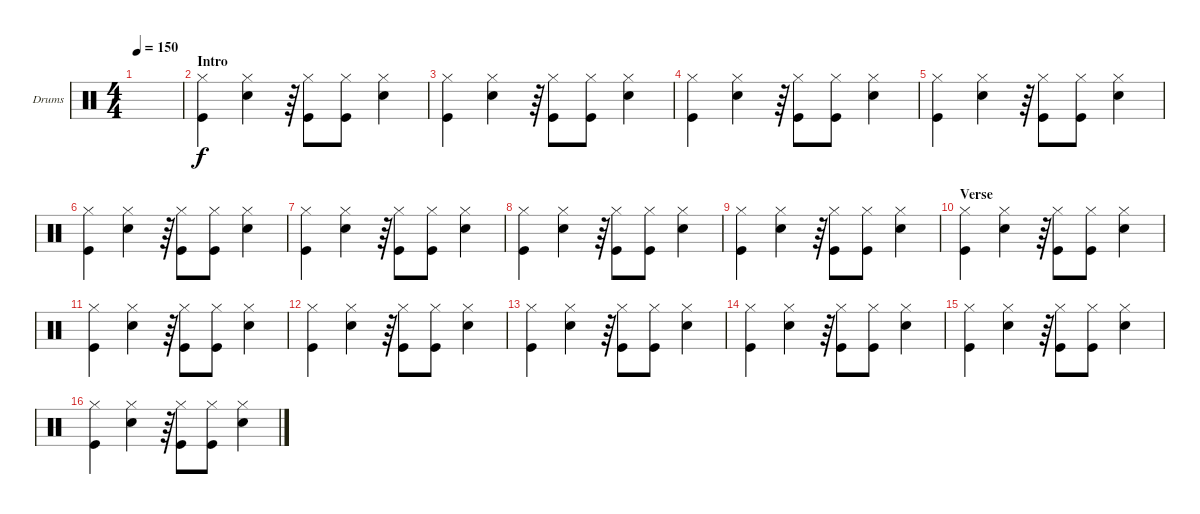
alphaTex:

\defaultSystemsLayout 4
\bracketExtendMode groupsimilarinstruments
\firstSystemTrackNameOrientation horizontal
\otherSystemsTrackNameOrientation horizontal
\track ("Drum" "Drums") {instrument percussion}
\staff {score}
\articulation defaults
\ts (4 4)
\tempo 150
\clef neutral
\scale
0.474178
\ks c
|
\section ("" "Intro")
\scale
0.262911 ("Hi-Hat (closed)" "Kick (hit)").4 ("Hi-Hat (closed)" "Snare (hit) 2").4 r.64 ("Hi-Hat (closed)" "Kick (hit)").8 ("Hi-Hat (closed)" "Kick (hit)").8 ("Hi-Hat (closed)" "Snare (hit) 2").4 |
\scale
0.262911 ("Hi-Hat (closed)" "Kick (hit)").4 ("Hi-Hat (closed)" "Snare (hit) 2").4 r.64 ("Hi-Hat (closed)" "Kick (hit)").8 ("Hi-Hat (closed)" "Kick (hit)").8 ("Hi-Hat (closed)" "Snare (hit) 2").4 |
("Hi-Hat (closed)" "Kick (hit)").4 ("Hi-Hat (closed)" "Snare (hit) 2").4 r.64 ("Hi-Hat (closed)" "Kick (hit)").8 ("Hi-Hat (closed)" "Kick (hit)").8 ("Hi-Hat (closed)" "Snare (hit) 2").4 |
("Hi-Hat (closed)" "Kick (hit)").4 ("Hi-Hat (closed)" "Snare (hit) 2").4 r.64 ("Hi-Hat (closed)" "Kick (hit)").8 ("Hi-Hat (closed)" "Kick (hit)").8 ("Hi-Hat (closed)" "Snare (hit) 2").4 |
("Hi-Hat (closed)" "Kick (hit)").4 ("Hi-Hat (closed)" "Snare (hit) 2").4 r.64 ("Hi-Hat (closed)" "Kick (hit)").8 ("Hi-Hat (closed)" "Kick (hit)").8 ("Hi-Hat (closed)" "Snare (hit) 2").4 |
("Hi-Hat (closed)" "Kick (hit)").4 ("Hi-Hat (closed)" "Snare (hit) 2").4 r.64 ("Hi-Hat (closed)" "Kick (hit)").8 ("Hi-Hat (closed)" "Kick (hit)").8 ("Hi-Hat (closed)" "Snare (hit) 2").4 |
("Hi-Hat (closed)" "Kick (hit)").4 ("Hi-Hat (closed)" "Snare (hit) 2").4 r.64 ("Hi-Hat (closed)" "Kick (hit)").8 ("Hi-Hat (closed)" "Kick (hit)").8 ("Hi-Hat (closed)" "Snare (hit) 2").4 |
("Hi-Hat (closed)" "Kick (hit)").4 ("Hi-Hat (closed)" "Snare (hit) 2").4 r.64 ("Hi-Hat (closed)" "Kick (hit)").8 ("Hi-Hat (closed)" "Kick (hit)").8 ("Hi-Hat (closed)" "Snare (hit) 2").4 |
\section ("" "Verse")
("Hi-Hat (closed)" "Kick (hit)").4 ("Hi-Hat (closed)" "Snare (hit) 2").4 r.64 ("Hi-Hat (closed)" "Kick (hit)").8 ("Hi-Hat (closed)" "Kick (hit)").8 ("Hi-Hat (closed)" "Snare (hit) 2").4 |
("Hi-Hat (closed)" "Kick (hit)").4 ("Hi-Hat (closed)" "Snare (hit) 2").4 r.64 ("Hi-Hat (closed)" "Kick (hit)").8 ("Hi-Hat (closed)" "Kick (hit)").8 ("Hi-Hat (closed)" "Snare (hit) 2").4 |
("Hi-Hat (closed)" "Kick (hit)").4 ("Hi-Hat (closed)" "Snare (hit) 2").4 r.64 ("Hi-Hat (closed)" "Kick (hit)").8 ("Hi-Hat (closed)" "Kick (hit)").8 ("Hi-Hat (closed)" "Snare (hit) 2").4 |
("Hi-Hat (closed)" "Kick (hit)").4 ("Hi-Hat (closed)" "Snare (hit) 2").4 r.64 ("Hi-Hat (closed)" "Kick (hit)").8 ("Hi-Hat (closed)" "Kick (hit)").8 ("Hi-Hat (closed)" "Snare (hit) 2").4 |
("Hi-Hat (closed)" "Kick (hit)").4 ("Hi-Hat (closed)" "Snare (hit) 2").4 r.64 ("Hi-Hat (closed)" "Kick (hit)").8 ("Hi-Hat (closed)" "Kick (hit)").8 ("Hi-Hat (closed)" "Snare (hit) 2").4 |
("Hi-Hat (closed)" "Kick (hit)").4 ("Hi-Hat (closed)" "Snare (hit) 2").4 r.64 ("Hi-Hat (closed)" "Kick (hit)").8 ("Hi-Hat (closed)" "Kick (hit)").8 ("Hi-Hat (closed)" "Snare (hit) 2").4 |
("Hi-Hat (closed)" "Kick (hit)").4 ("Hi-Hat (closed)" "Snare (hit) 2").4 r.64 ("Hi-Hat (closed)" "Kick (hit)").8 ("Hi-Hat (closed)" "Kick (hit)").8 ("Hi-Hat (closed)" "Snare (hit) 2").4
